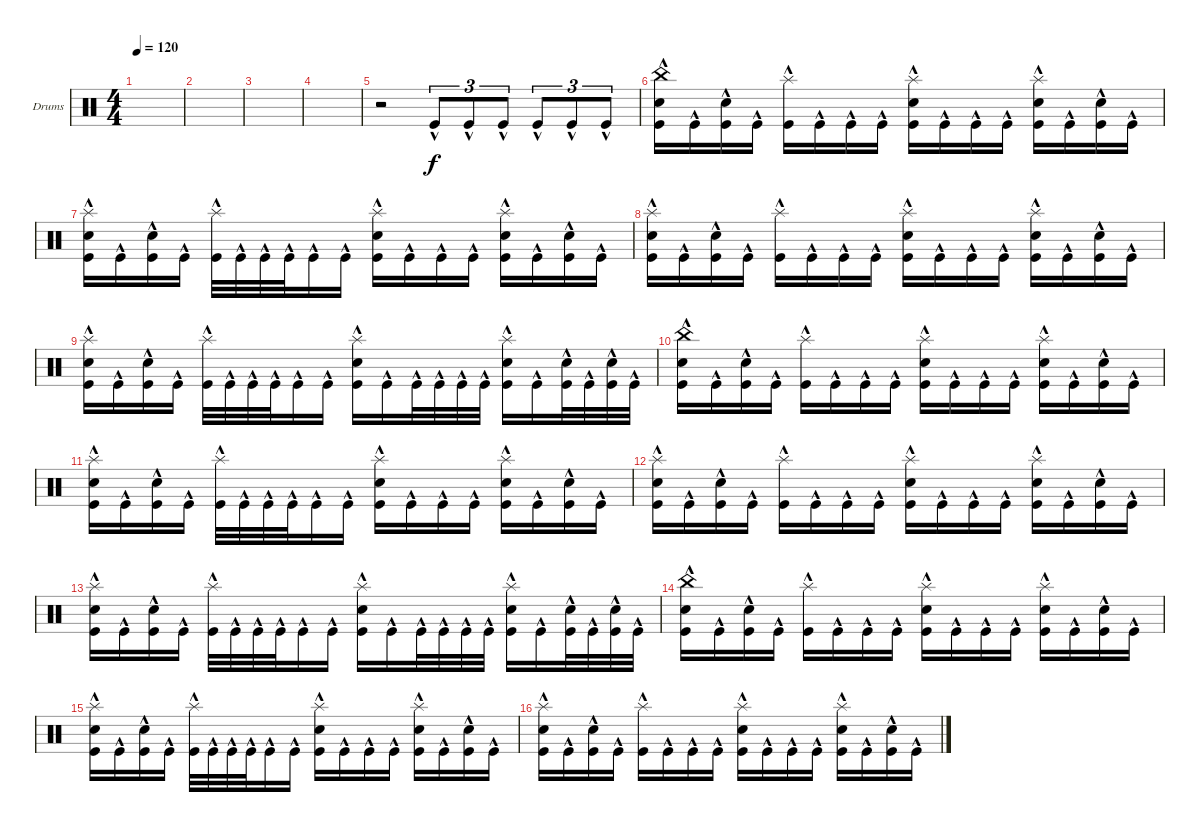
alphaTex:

\defaultSystemsLayout 4
\bracketExtendMode groupsimilarinstruments
\firstSystemTrackNameOrientation horizontal
\otherSystemsTrackNameOrientation horizontal
\track ("Drumkit" "Drums") {instrument percussion}
\staff {score}
\articulation defaults
\ts (4 4)
\tempo 120
\clef neutral
\scale
0.333333
\ks c
|
\scale
0.333333 |
\scale
0.333333 |
\scale
0.333333 |
r.2 "Kick (hit)"{hac}.8{tu (3 2)} "Kick (hit)"{hac}.8{tu (3 2)} "Kick (hit)"{hac}.8{tu (3 2)} "Kick (hit)"{hac}.8{tu (3 2)} "Kick (hit)"{hac}.8{tu (3 2)} "Kick (hit)"{hac}.8{tu (3 2)} |
("Kick (hit)"{hac} "Snare (hit) 2"{hac} "China (hit)"{hac}).16 "Kick (hit)"{hac}.16 ("Kick (hit)"{hac} "Snare (hit) 2"{hac}).16 "Kick (hit)"{hac}.16 ("Kick (hit)"{hac} "Splash (hit)"{hac}).16 "Kick (hit)"{hac}.16 "Kick (hit)"{hac}.16 "Kick (hit)"{hac}.16 ("Kick (hit)"{hac} "Snare (hit) 2"{hac} "Splash (hit)"{hac}).16 "Kick (hit)"{hac}.16 "Kick (hit)"{hac}.16 "Kick (hit)"{hac}.16 ("Kick (hit)"{hac} "Snare (hit) 2"{hac} "Splash (hit)"{hac}).16 "Kick (hit)"{hac}.16 ("Kick (hit)"{hac} "Snare (hit) 2"{hac}).16 "Kick (hit)"{hac}.16 |
("Kick (hit)"{hac} "Snare (hit) 2"{hac} "Splash (hit)"{hac}).16 "Kick (hit)"{hac}.16 ("Kick (hit)"{hac} "Snare (hit) 2"{hac}).16 "Kick (hit)"{hac}.16 ("Kick (hit)"{hac} "Splash (hit)"{hac}).32 "Kick (hit)"{hac}.32 "Kick (hit)"{hac}.32 "Kick (hit)"{hac}.32 "Kick (hit)"{hac}.16 "Kick (hit)"{hac}.16 ("Kick (hit)"{hac} "Snare (hit) 2"{hac} "Splash (hit)"{hac}).16 "Kick (hit)"{hac}.16 "Kick (hit)"{hac}.16 "Kick (hit)"{hac}.16 ("Kick (hit)"{hac} "Snare (hit) 2"{hac} "Splash (hit)"{hac}).16 "Kick (hit)"{hac}.16 ("Kick (hit)"{hac} "Snare (hit) 2"{hac}).16 "Kick (hit)"{hac}.16 |
("Kick (hit)"{hac} "Snare (hit) 2"{hac} "Splash (hit)"{hac}).16 "Kick (hit)"{hac}.16 ("Kick (hit)"{hac} "Snare (hit) 2"{hac}).16 "Kick (hit)"{hac}.16 ("Kick (hit)"{hac} "Splash (hit)"{hac}).16 "Kick (hit)"{hac}.16 "Kick (hit)"{hac}.16 "Kick (hit)"{hac}.16 ("Kick (hit)"{hac} "Snare (hit) 2"{hac} "Splash (hit)"{hac}).16 "Kick (hit)"{hac}.16 "Kick (hit)"{hac}.16 "Kick (hit)"{hac}.16 ("Kick (hit)"{hac} "Snare (hit) 2"{hac} "Splash (hit)"{hac}).16 "Kick (hit)"{hac}.16 ("Kick (hit)"{hac} "Snare (hit) 2"{hac}).16 "Kick (hit)"{hac}.16 |
("Kick (hit)"{hac} "Snare (hit) 2"{hac} "Splash (hit)"{hac}).16 "Kick (hit)"{hac}.16 ("Kick (hit)"{hac} "Snare (hit) 2"{hac}).16 "Kick (hit)"{hac}.16 ("Kick (hit)"{hac} "Splash (hit)"{hac}).32 "Kick (hit)"{hac}.32 "Kick (hit)"{hac}.32 "Kick (hit)"{hac}.32 "Kick (hit)"{hac}.16 "Kick (hit)"{hac}.16 ("Kick (hit)"{hac} "Snare (hit) 2"{hac} "Splash (hit)"{hac}).16 "Kick (hit)"{hac}.16 "Kick (hit)"{hac}.32 "Kick (hit)"{hac}.32 "Kick (hit)"{hac}.32 "Kick (hit)"{hac}.32 ("Kick (hit)"{hac} "Snare (hit) 2"{hac} "Splash (hit)"{hac}).16 "Kick (hit)"{hac}.16 ("Kick (hit)"{hac} "Snare (hit) 2"{hac}).32 "Kick (hit)"{hac}.32 ("Kick (hit)"{hac} "Snare (hit) 2"{hac}).32 "Kick (hit)"{hac}.32 |
("Kick (hit)"{hac} "Snare (hit) 2"{hac} "China (hit)"{hac}).16 "Kick (hit)"{hac}.16 ("Kick (hit)"{hac} "Snare (hit) 2"{hac}).16 "Kick (hit)"{hac}.16 ("Kick (hit)"{hac} "Splash (hit)"{hac}).16 "Kick (hit)"{hac}.16 "Kick (hit)"{hac}.16 "Kick (hit)"{hac}.16 ("Kick (hit)"{hac} "Snare (hit) 2"{hac} "Splash (hit)"{hac}).16 "Kick (hit)"{hac}.16 "Kick (hit)"{hac}.16 "Kick (hit)"{hac}.16 ("Kick (hit)"{hac} "Snare (hit) 2"{hac} "Splash (hit)"{hac}).16 "Kick (hit)"{hac}.16 ("Kick (hit)"{hac} "Snare (hit) 2"{hac}).16 "Kick (hit)"{hac}.16 |
("Kick (hit)"{hac} "Snare (hit) 2"{hac} "Splash (hit)"{hac}).16 "Kick (hit)"{hac}.16 ("Kick (hit)"{hac} "Snare (hit) 2"{hac}).16 "Kick (hit)"{hac}.16 ("Kick (hit)"{hac} "Splash (hit)"{hac}).32 "Kick (hit)"{hac}.32 "Kick (hit)"{hac}.32 "Kick (hit)"{hac}.32 "Kick (hit)"{hac}.16 "Kick (hit)"{hac}.16 ("Kick (hit)"{hac} "Snare (hit) 2"{hac} "Splash (hit)"{hac}).16 "Kick (hit)"{hac}.16 "Kick (hit)"{hac}.16 "Kick (hit)"{hac}.16 ("Kick (hit)"{hac} "Snare (hit) 2"{hac} "Splash (hit)"{hac}).16 "Kick (hit)"{hac}.16 ("Kick (hit)"{hac} "Snare (hit) 2"{hac}).16 "Kick (hit)"{hac}.16 |
("Kick (hit)"{hac} "Snare (hit) 2"{hac} "Splash (hit)"{hac}).16 "Kick (hit)"{hac}.16 ("Kick (hit)"{hac} "Snare (hit) 2"{hac}).16 "Kick (hit)"{hac}.16 ("Kick (hit)"{hac} "Splash (hit)"{hac}).16 "Kick (hit)"{hac}.16 "Kick (hit)"{hac}.16 "Kick (hit)"{hac}.16 ("Kick (hit)"{hac} "Snare (hit) 2"{hac} "Splash (hit)"{hac}).16 "Kick (hit)"{hac}.16 "Kick (hit)"{hac}.16 "Kick (hit)"{hac}.16 ("Kick (hit)"{hac} "Snare (hit) 2"{hac} "Splash (hit)"{hac}).16 "Kick (hit)"{hac}.16 ("Kick (hit)"{hac} "Snare (hit) 2"{hac}).16 "Kick (hit)"{hac}.16 |
("Kick (hit)"{hac} "Snare (hit) 2"{hac} "Splash (hit)"{hac}).16 "Kick (hit)"{hac}.16 ("Kick (hit)"{hac} "Snare (hit) 2"{hac}).16 "Kick (hit)"{hac}.16 ("Kick (hit)"{hac} "Splash (hit)"{hac}).32 "Kick (hit)"{hac}.32 "Kick (hit)"{hac}.32 "Kick (hit)"{hac}.32 "Kick (hit)"{hac}.16 "Kick (hit)"{hac}.16 ("Kick (hit)"{hac} "Snare (hit) 2"{hac} "Splash (hit)"{hac}).16 "Kick (hit)"{hac}.16 "Kick (hit)"{hac}.32 "Kick (hit)"{hac}.32 "Kick (hit)"{hac}.32 "Kick (hit)"{hac}.32 ("Kick (hit)"{hac} "Snare (hit) 2"{hac} "Splash (hit)"{hac}).16 "Kick (hit)"{hac}.16 ("Kick (hit)"{hac} "Snare (hit) 2"{hac}).32 "Kick (hit)"{hac}.32 ("Kick (hit)"{hac} "Snare (hit) 2"{hac}).32 "Kick (hit)"{hac}.32 |
("Kick (hit)"{hac} "Snare (hit) 2"{hac} "China (hit)"{hac}).16 "Kick (hit)"{hac}.16 ("Kick (hit)"{hac} "Snare (hit) 2"{hac}).16 "Kick (hit)"{hac}.16 ("Kick (hit)"{hac} "Splash (hit)"{hac}).16 "Kick (hit)"{hac}.16 "Kick (hit)"{hac}.16 "Kick (hit)"{hac}.16 ("Kick (hit)"{hac} "Snare (hit) 2"{hac} "Splash (hit)"{hac}).16 "Kick (hit)"{hac}.16 "Kick (hit)"{hac}.16 "Kick (hit)"{hac}.16 ("Kick (hit)"{hac} "Snare (hit) 2"{hac} "Splash (hit)"{hac}).16 "Kick (hit)"{hac}.16 ("Kick (hit)"{hac} "Snare (hit) 2"{hac}).16 "Kick (hit)"{hac}.16 |
("Kick (hit)"{hac} "Snare (hit) 2"{hac} "Splash (hit)"{hac}).16 "Kick (hit)"{hac}.16 ("Kick (hit)"{hac} "Snare (hit) 2"{hac}).16 "Kick (hit)"{hac}.16 ("Kick (hit)"{hac} "Splash (hit)"{hac}).32 "Kick (hit)"{hac}.32 "Kick (hit)"{hac}.32 "Kick (hit)"{hac}.32 "Kick (hit)"{hac}.16 "Kick (hit)"{hac}.16 ("Kick (hit)"{hac} "Snare (hit) 2"{hac} "Splash (hit)"{hac}).16 "Kick (hit)"{hac}.16 "Kick (hit)"{hac}.16 "Kick (hit)"{hac}.16 ("Kick (hit)"{hac} "Snare (hit) 2"{hac} "Splash (hit)"{hac}).16 "Kick (hit)"{hac}.16 ("Kick (hit)"{hac} "Snare (hit) 2"{hac}).16 "Kick (hit)"{hac}.16 |
("Kick (hit)"{hac} "Snare (hit) 2"{hac} "Splash (hit)"{hac}).16 "Kick (hit)"{hac}.16 ("Kick (hit)"{hac} "Snare (hit) 2"{hac}).16 "Kick (hit)"{hac}.16 ("Kick (hit)"{hac} "Splash (hit)"{hac}).16 "Kick (hit)"{hac}.16 "Kick (hit)"{hac}.16 "Kick (hit)"{hac}.16 ("Kick (hit)"{hac} "Snare (hit) 2"{hac} "Splash (hit)"{hac}).16 "Kick (hit)"{hac}.16 "Kick (hit)"{hac}.16 "Kick (hit)"{hac}.16 ("Kick (hit)"{hac} "Snare (hit) 2"{hac} "Splash (hit)"{hac}).16 "Kick (hit)"{hac}.16 ("Kick (hit)"{hac} "Snare (hit) 2"{hac}).16 "Kick (hit)"{hac}.16
